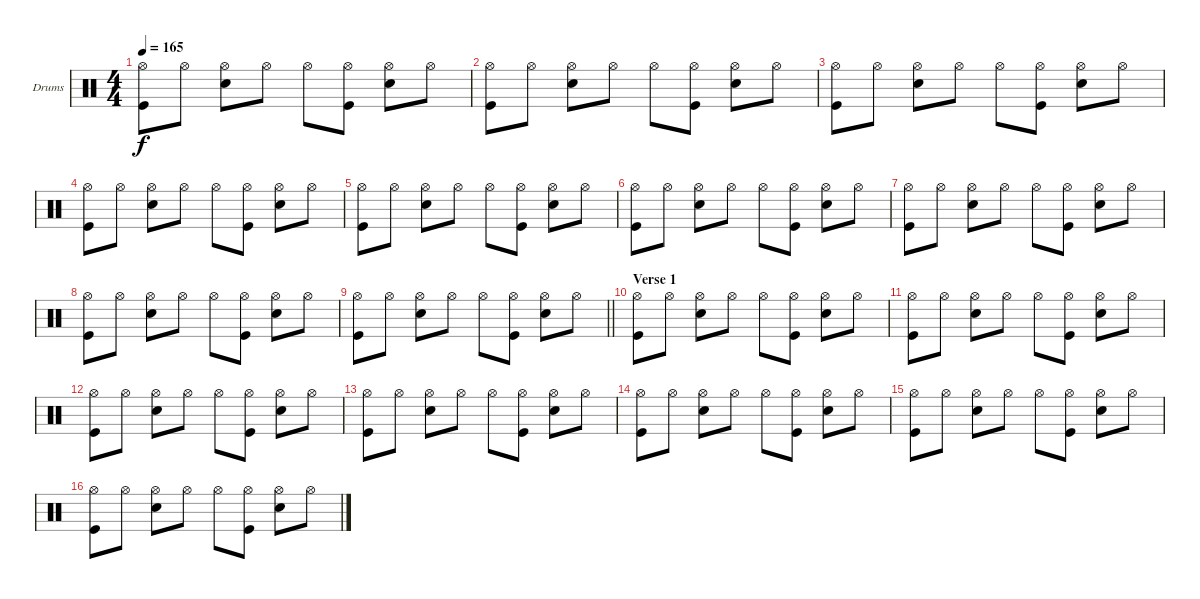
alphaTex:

\bracketExtendMode groupsimilarinstruments
\firstSystemTrackNameOrientation horizontal
\otherSystemsTrackNameOrientation horizontal
\track ("Fabrizio" "Drums") {instrument percussion}
\staff {score}
\articulation defaults
\ts (4 4)
\tempo 165
\clef neutral
\ks c
("Kick (hit)" "Hi-Hat (open)").8{dy f} "Hi-Hat (open)".8 ("Snare (hit) 2" "Hi-Hat (open)").8 "Hi-Hat (open)".8 "Hi-Hat (open)".8 ("Kick (hit)" "Hi-Hat (open)").8 ("Snare (hit) 2" "Hi-Hat (open)").8 "Hi-Hat (open)".8 |
("Kick (hit)" "Hi-Hat (open)").8 "Hi-Hat (open)".8 ("Hi-Hat (open)" "Snare (hit) 2").8 "Hi-Hat (open)".8 "Hi-Hat (open)".8 ("Kick (hit)" "Hi-Hat (open)").8 ("Hi-Hat (open)" "Snare (hit) 2").8 "Hi-Hat (open)".8 |
("Kick (hit)" "Hi-Hat (open)").8 "Hi-Hat (open)".8 ("Snare (hit) 2" "Hi-Hat (open)").8 "Hi-Hat (open)".8 "Hi-Hat (open)".8 ("Kick (hit)" "Hi-Hat (open)").8 ("Snare (hit) 2" "Hi-Hat (open)").8 "Hi-Hat (open)".8 |
("Kick (hit)" "Hi-Hat (open)").8 "Hi-Hat (open)".8 ("Snare (hit) 2" "Hi-Hat (open)").8 "Hi-Hat (open)".8 "Hi-Hat (open)".8 ("Kick (hit)" "Hi-Hat (open)").8 ("Snare (hit) 2" "Hi-Hat (open)").8 "Hi-Hat (open)".8 |
("Kick (hit)" "Hi-Hat (open)").8 "Hi-Hat (open)".8 ("Snare (hit) 2" "Hi-Hat (open)").8 "Hi-Hat (open)".8 "Hi-Hat (open)".8 ("Kick (hit)" "Hi-Hat (open)").8 ("Snare (hit) 2" "Hi-Hat (open)").8 "Hi-Hat (open)".8 |
("Kick (hit)" "Hi-Hat (open)").8 "Hi-Hat (open)".8 ("Snare (hit) 2" "Hi-Hat (open)").8 "Hi-Hat (open)".8 "Hi-Hat (open)".8 ("Kick (hit)" "Hi-Hat (open)").8 ("Snare (hit) 2" "Hi-Hat (open)").8 "Hi-Hat (open)".8 |
("Kick (hit)" "Hi-Hat (open)").8 "Hi-Hat (open)".8 ("Snare (hit) 2" "Hi-Hat (open)").8 "Hi-Hat (open)".8 "Hi-Hat (open)".8 ("Kick (hit)" "Hi-Hat (open)").8 ("Snare (hit) 2" "Hi-Hat (open)").8 "Hi-Hat (open)".8 |
("Kick (hit)" "Hi-Hat (open)").8 "Hi-Hat (open)".8 ("Snare (hit) 2" "Hi-Hat (open)").8 "Hi-Hat (open)".8 "Hi-Hat (open)".8 ("Kick (hit)" "Hi-Hat (open)").8 ("Snare (hit) 2" "Hi-Hat (open)").8 "Hi-Hat (open)".8 |
\barLineRight lightlight
("Kick (hit)" "Hi-Hat (open)").8 "Hi-Hat (open)".8 ("Snare (hit) 2" "Hi-Hat (open)").8 "Hi-Hat (open)".8 "Hi-Hat (open)".8 ("Kick (hit)" "Hi-Hat (open)").8 ("Snare (hit) 2" "Hi-Hat (open)").8 "Hi-Hat (open)".8 |
\section ("" "Verse 1")
("Kick (hit)" "Hi-Hat (open)").8 "Hi-Hat (open)".8 ("Snare (hit) 2" "Hi-Hat (open)").8 "Hi-Hat (open)".8 "Hi-Hat (open)".8 ("Kick (hit)" "Hi-Hat (open)").8 ("Snare (hit) 2" "Hi-Hat (open)").8 "Hi-Hat (open)".8 |
("Kick (hit)" "Hi-Hat (open)").8 "Hi-Hat (open)".8 ("Snare (hit) 2" "Hi-Hat (open)").8 "Hi-Hat (open)".8 "Hi-Hat (open)".8 ("Kick (hit)" "Hi-Hat (open)").8 ("Snare (hit) 2" "Hi-Hat (open)").8 "Hi-Hat (open)".8 |
("Kick (hit)" "Hi-Hat (open)").8 "Hi-Hat (open)".8 ("Snare (hit) 2" "Hi-Hat (open)").8 "Hi-Hat (open)".8 "Hi-Hat (open)".8 ("Kick (hit)" "Hi-Hat (open)").8 ("Snare (hit) 2" "Hi-Hat (open)").8 "Hi-Hat (open)".8 |
("Kick (hit)" "Hi-Hat (open)").8 "Hi-Hat (open)".8 ("Snare (hit) 2" "Hi-Hat (open)").8 "Hi-Hat (open)".8 "Hi-Hat (open)".8 ("Kick (hit)" "Hi-Hat (open)").8 ("Snare (hit) 2" "Hi-Hat (open)").8 "Hi-Hat (open)".8 |
("Kick (hit)" "Hi-Hat (open)").8 "Hi-Hat (open)".8 ("Snare (hit) 2" "Hi-Hat (open)").8 "Hi-Hat (open)".8 "Hi-Hat (open)".8 ("Kick (hit)" "Hi-Hat (open)").8 ("Snare (hit) 2" "Hi-Hat (open)").8 "Hi-Hat (open)".8 |
("Kick (hit)" "Hi-Hat (open)").8 "Hi-Hat (open)".8 ("Snare (hit) 2" "Hi-Hat (open)").8 "Hi-Hat (open)".8 "Hi-Hat (open)".8 ("Kick (hit)" "Hi-Hat (open)").8 ("Snare (hit) 2" "Hi-Hat (open)").8 "Hi-Hat (open)".8 |
("Kick (hit)" "Hi-Hat (open)").8 "Hi-Hat (open)".8 ("Snare (hit) 2" "Hi-Hat (open)").8 "Hi-Hat (open)".8 "Hi-Hat (open)".8 ("Kick (hit)" "Hi-Hat (open)").8 ("Snare (hit) 2" "Hi-Hat (open)").8 "Hi-Hat (open)".8
